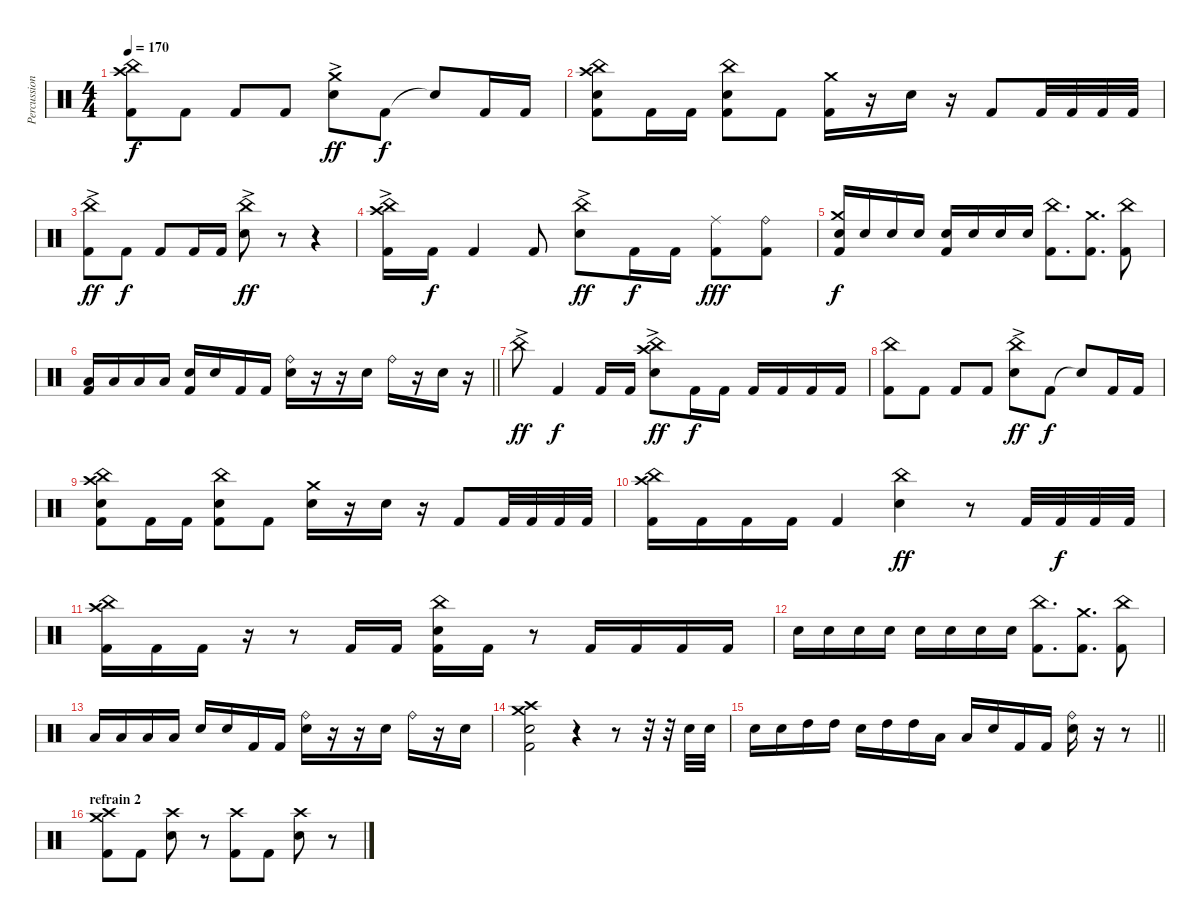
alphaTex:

\track ("Percussions" "Percussion") {instrument percussion}
\staff {score}
\articulation defaults
\ts (4 4)
\tempo 170
\clef neutral
\ks c
("Crash high (hit)" "China (hit)" "Kick (hit) 2").8{dy f} "Kick (hit) 2".8 "Kick (hit) 2".8 "Kick (hit) 2".8 ("Crash medium (hit)"{ac} "Electric Snare (hit)").8{dy ff} "Kick (hit) 2".8{dy f} "Snare (hit)"{t}.8 "Kick (hit) 2".16 "Kick (hit) 2".16 |
("China (hit)" "Crash high (hit)" "Electric Snare (hit)" "Kick (hit) 2").8 "Kick (hit) 2".16 "Kick (hit) 2".16 ("China (hit)" "Electric Snare (hit)" "Kick (hit) 2").8 "Kick (hit) 2".8 ("Crash medium (hit)" "Kick (hit) 2").16 r.16 "Electric Snare (hit)".16 r.16 "Kick (hit) 2".8 "Kick (hit) 2".32 "Kick (hit) 2".32 "Kick (hit) 2".32 "Kick (hit) 2".32 |
("China (hit)"{ac} "Kick (hit) 2").8{dy ff} "Kick (hit) 2".8{dy f} "Kick (hit) 2".8 "Kick (hit) 2".16 "Kick (hit) 2".16 ("China (hit)"{ac} "Electric Snare (hit)").8{dy ff} r.8 r.4 |
("China (hit)"{ac} "Crash high (hit)" "Kick (hit) 2").16 "Kick (hit) 2".16{dy f} "Kick (hit) 2".4 "Kick (hit) 2".8 ("China (hit)"{ac} "Electric Snare (hit)").8{dy ff} "Kick (hit) 2".16{dy f} "Kick (hit) 2".16 ("Ride (middle)" "Kick (hit) 2").8{dy fff} ("Ride (bell)" "Kick (hit) 2").8 |
("Crash medium (hit)" "Kick (hit) 2" "Electric Snare (hit)").16{dy f} "Electric Snare (hit)".16 "Electric Snare (hit)".16 "Electric Snare (hit)".16 ("Electric Snare (hit)" "Kick (hit) 2").16 "Electric Snare (hit)".16 "Electric Snare (hit)".16 "Electric Snare (hit)".16 ("China (hit)" "Kick (hit) 2").8{d} ("Crash medium (hit)" "Kick (hit) 2").8{d} ("China (hit)" "Kick (hit) 2").8 |
\barLineRight lightlight
("Kick (hit) 2" "Low Tom (hit)").16 "Low Tom (hit)".16 "Low Tom (hit)".16 "Low Tom (hit)".16 ("Kick (hit) 2" "Electric Snare (hit)").16 "Electric Snare (hit)".16 "Kick (hit) 2".16 "Kick (hit) 2".16 ("Electric Snare (hit)" "Ride (bell)").16 r.16 r.16 "Electric Snare (hit)".16 "Ride (bell)".16 r.16 "Electric Snare (hit)".16 r.16 |
"China (hit)"{ac}.8{dy ff} "Kick (hit) 2".4{dy f} "Kick (hit) 2".16 "Kick (hit) 2".16 ("China (hit)"{ac} "Crash high (hit)" "Electric Snare (hit)").8{dy ff} "Kick (hit) 2".16{dy f} "Kick (hit) 2".16 "Kick (hit) 2".16 "Kick (hit) 2".16 "Kick (hit) 2".16 "Kick (hit) 2".16 |
("China (hit)" "Kick (hit) 2").8 "Kick (hit) 2".8 "Kick (hit) 2".8 "Kick (hit) 2".8 ("China (hit)"{ac} "Electric Snare (hit)").8{dy ff} "Kick (hit) 2".8{dy f} "Snare (hit)"{t}.8 "Kick (hit) 2".16 "Kick (hit) 2".16 |
("China (hit)" "Crash high (hit)" "Electric Snare (hit)" "Kick (hit) 2").8 "Kick (hit) 2".16 "Kick (hit) 2".16 ("China (hit)" "Electric Snare (hit)" "Kick (hit) 2").8 "Kick (hit) 2".8 ("Crash medium (hit)" "Electric Snare (hit)").16 r.16 "Electric Snare (hit)".16 r.16 "Kick (hit) 2".8 "Kick (hit) 2".32 "Kick (hit) 2".32 "Kick (hit) 2".32 "Kick (hit) 2".32 |
("China (hit)" "Crash high (hit)" "Kick (hit) 2").16 "Kick (hit) 2".16 "Kick (hit) 2".16 "Kick (hit) 2".16 "Kick (hit) 2".4 ("China (hit)" "Electric Snare (hit)").4{dy ff} r.8 "Kick (hit) 2".32 "Kick (hit) 2".32{dy f} "Kick (hit) 2".32 "Kick (hit) 2".32 |
("Kick (hit) 2" "Crash high (hit)" "China (hit)").16 "Kick (hit) 2".16 "Kick (hit) 2".16 r.16 r.8 "Kick (hit) 2".16 "Kick (hit) 2".16 ("Electric Snare (hit)" "Kick (hit) 2" "China (hit)").16 "Kick (hit) 2".16 r.8 "Kick (hit) 2".16 "Kick (hit) 2".16 "Kick (hit) 2".16 "Kick (hit) 2".16 |
"Electric Snare (hit)".16 "Electric Snare (hit)".16 "Electric Snare (hit)".16 "Electric Snare (hit)".16 "Electric Snare (hit)".16 "Electric Snare (hit)".16 "Electric Snare (hit)".16 "Electric Snare (hit)".16 ("China (hit)" "Kick (hit) 2").8{d} ("Crash medium (hit)" "Kick (hit) 2").8{d} ("China (hit)" "Kick (hit) 2").8 |
"Low Tom (hit)".16 "Low Tom (hit)".16 "Low Tom (hit)".16 "Low Tom (hit)".16 "Electric Snare (hit)".16 "Electric Snare (hit)".16 "Kick (hit) 2".16 "Kick (hit) 2".16 ("Electric Snare (hit)" "Ride (bell)").16 r.16 r.16 "Electric Snare (hit)".16 "Ride (bell)".16 r.16 "Electric Snare (hit)".16 |
("Crash medium (hit)" "Crash high (hit)" "Electric Snare (hit)" "Kick (hit) 2").2 r.4 r.8 r.32 r.32 "Electric Snare (hit)".32 "Electric Snare (hit)".32 |
\barLineRight lightlight "Electric Snare (hit)".16 "Electric Snare (hit)".16 "High Tom (hit)".16 "High Tom (hit)".16 "Electric Snare (hit)".16 "High Tom (hit)".16 "High Tom (hit)".16 "Low Floor Tom (hit)".16 "Low Floor Tom (hit)".16 "Electric Snare (hit)".16 "Kick (hit) 2".16 "Kick (hit) 2".16
("Ride (bell)" "Electric Snare (hit)").16 r.16 r.8 |
\section ("" "refrain 2")
("Crash high (hit)" "Crash medium (hit)" "Kick (hit) 2").8 "Kick (hit) 2".8 ("Crash high (hit)" "Electric Snare (hit)").8 r.8 ("Crash high (hit)" "Kick (hit) 2").8 "Kick (hit) 2".8 ("Crash high (hit)" "Electric Snare (hit)").8 r.8
